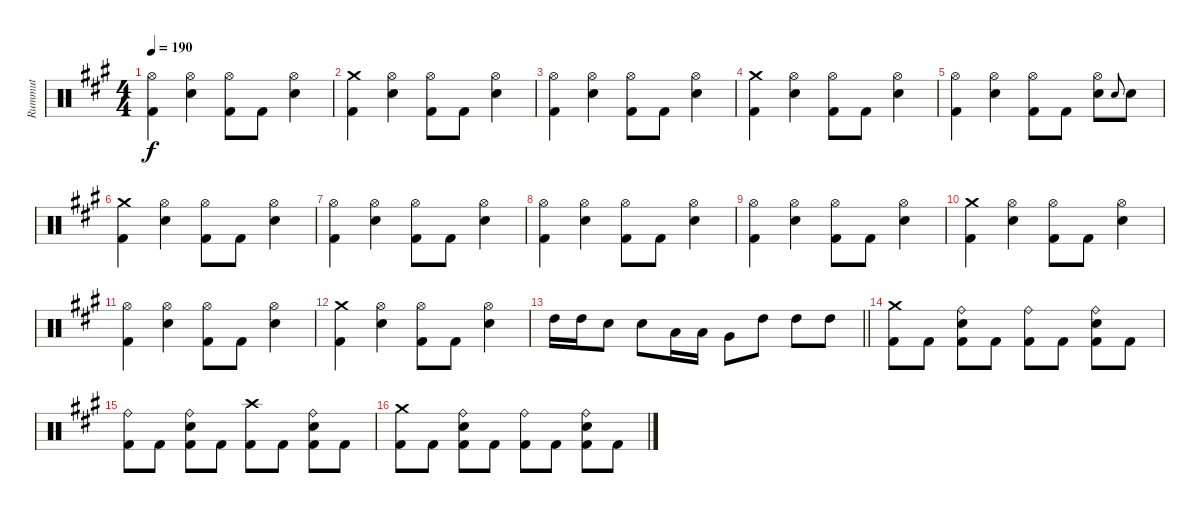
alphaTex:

\track ("Rummut" "Rummut") {instrument percussion}
\staff {score}
\articulation defaults
\ts (4 4)
\tempo 190
\clef neutral
\ks a
("Hi-Hat (open)" "Kick (hit) 2").4{dy f} ("Hi-Hat (open)" "Snare (hit) 2").4 ("Hi-Hat (open)" "Kick (hit) 2").8 "Kick (hit) 2".8 ("Hi-Hat (open)" "Snare (hit) 2").4 |
("Crash medium (hit)" "Kick (hit) 2").4 ("Hi-Hat (open)" "Snare (hit) 2").4 ("Hi-Hat (open)" "Kick (hit) 2").8 "Kick (hit) 2".8 ("Hi-Hat (open)" "Snare (hit) 2").4 |
("Hi-Hat (open)" "Kick (hit) 2").4 ("Hi-Hat (open)" "Snare (hit) 2").4 ("Hi-Hat (open)" "Kick (hit) 2").8 "Kick (hit) 2".8 ("Hi-Hat (open)" "Snare (hit) 2").4 |
("Crash medium (hit)" "Kick (hit) 2").4 ("Hi-Hat (open)" "Snare (hit) 2").4 ("Hi-Hat (open)" "Kick (hit) 2").8 "Kick (hit) 2".8 ("Hi-Hat (open)" "Snare (hit) 2").4 |
("Hi-Hat (open)" "Kick (hit) 2").4 ("Hi-Hat (open)" "Snare (hit) 2").4 ("Hi-Hat (open)" "Kick (hit) 2").8 "Kick (hit) 2".8 ("Hi-Hat (open)" "Snare (hit) 2").8 "Snare (hit) 2".8{gr onbeat} "Snare (hit) 2".8 |
("Crash medium (hit)" "Kick (hit) 2").4 ("Hi-Hat (open)" "Snare (hit) 2").4 ("Hi-Hat (open)" "Kick (hit) 2").8 "Kick (hit) 2".8 ("Hi-Hat (open)" "Snare (hit) 2").4 |
("Hi-Hat (open)" "Kick (hit) 2").4 ("Hi-Hat (open)" "Snare (hit) 2").4 ("Hi-Hat (open)" "Kick (hit) 2").8 "Kick (hit) 2".8 ("Hi-Hat (open)" "Snare (hit) 2").4 |
("Hi-Hat (open)" "Kick (hit) 2").4 ("Hi-Hat (open)" "Snare (hit) 2").4 ("Hi-Hat (open)" "Kick (hit) 2").8 "Kick (hit) 2".8 ("Hi-Hat (open)" "Snare (hit) 2").4 |
("Hi-Hat (open)" "Kick (hit) 2").4 ("Hi-Hat (open)" "Snare (hit) 2").4 ("Hi-Hat (open)" "Kick (hit) 2").8 "Kick (hit) 2".8 ("Hi-Hat (open)" "Snare (hit) 2").4 |
("Crash medium (hit)" "Kick (hit) 2").4 ("Hi-Hat (open)" "Snare (hit) 2").4 ("Hi-Hat (open)" "Kick (hit) 2").8 "Kick (hit) 2".8 ("Hi-Hat (open)" "Snare (hit) 2").4 |
("Hi-Hat (open)" "Kick (hit) 2").4 ("Hi-Hat (open)" "Snare (hit) 2").4 ("Hi-Hat (open)" "Kick (hit) 2").8 "Kick (hit) 2".8 ("Hi-Hat (open)" "Snare (hit) 2").4 |
("Crash medium (hit)" "Kick (hit) 2").4 ("Hi-Hat (open)" "Snare (hit) 2").4 ("Hi-Hat (open)" "Kick (hit) 2").8 "Kick (hit) 2".8 ("Hi-Hat (open)" "Snare (hit) 2").4 |
\barLineRight lightlight "High Tom (hit)".16 "High Tom (hit)".16 "Snare (hit) 2".8 "Snare (hit) 2".8 "Low Tom (hit)".16 "Low Tom (hit)".16 "Very Low Tom (hit)".8 "High Tom (hit)".8 "High Tom (hit)".8 "High Tom (hit)".8
|
("Crash medium (hit)" "Kick (hit) 2").8 "Kick (hit) 2".8 ("Ride (bell)" "Snare (hit) 2" "Kick (hit) 2").8 "Kick (hit) 2".8 ("Ride (bell)" "Kick (hit) 2").8 "Kick (hit) 2".8 ("Ride (bell)" "Snare (hit) 2" "Kick (hit) 2").8 "Kick (hit) 2".8 |
("Ride (bell)" "Kick (hit) 2").8 "Kick (hit) 2".8 ("Ride (bell)" "Snare (hit) 2" "Kick (hit) 2").8 "Kick (hit) 2".8 ("Crash high (hit)" "Kick (hit) 2").8 "Kick (hit) 2".8 ("Ride (bell)" "Snare (hit) 2" "Kick (hit) 2").8 "Kick (hit) 2".8 |
("Crash medium (hit)" "Kick (hit) 2").8 "Kick (hit) 2".8 ("Ride (bell)" "Snare (hit) 2" "Kick (hit) 2").8 "Kick (hit) 2".8 ("Ride (bell)" "Kick (hit) 2").8 "Kick (hit) 2".8 ("Ride (bell)" "Snare (hit) 2" "Kick (hit) 2").8 "Kick (hit) 2".8
